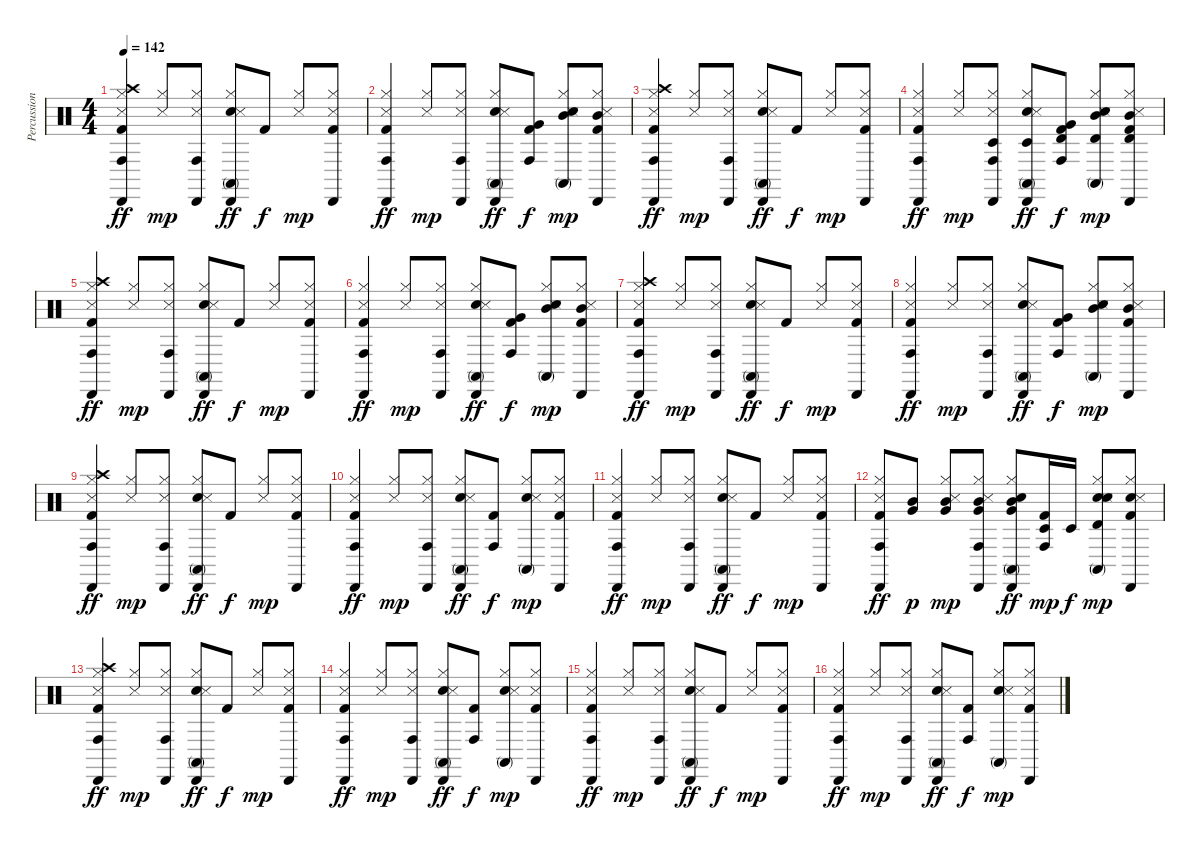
\track ("Percussion Booster" "Percussion") {instrument percussion}
\staff {score}
\articulation defaults
\ts (4 4)
\tempo 142
\clef neutral
\ks c
("Conga high (hit)" "Cabasa (hit)" "Crash high (hit)" "Hi-Hat (closed)" "Snare (side stick) 3" "Kick (hit) 2").4{dy ff} ("Hi-Hat (closed)" "Snare (side stick) 3").8{dy mp} ("Conga high (hit)" "Cabasa (hit)" "Hi-Hat (closed)" "Snare (side stick) 3").8 ("Conga high (mute)" "Cabasa (hit)" "Hi-Hat (closed)" "Hand Clap (hit)" "Snare (side stick) 3").8{dy ff} "Kick (hit) 2".8{dy f} ("Hi-Hat (closed)" "Snare (side stick) 3").8{dy mp} ("Cabasa (hit)" "Hi-Hat (closed)" "Snare (side stick) 3" "Kick (hit) 2").8 |
("Conga high (hit)" "Cabasa (hit)" "Hi-Hat (closed)" "Snare (side stick) 3" "Kick (hit) 2").4{dy ff} ("Hi-Hat (closed)" "Snare (side stick) 3").8{dy mp} ("Conga high (hit)" "Cabasa (hit)" "Hi-Hat (closed)" "Snare (side stick) 3").8 ("Conga high (mute)" "Cabasa (hit)" "Hi-Hat (closed)" "Hand Clap (hit)" "Snare (side stick) 3").8{dy ff} ("Conga high (hit)" "Very Low Tom (hit)" "Kick (hit) 2").8{dy f} ("Conga high (mute)" "Mid Tom (hit)" "Hi-Hat (closed)" "Hand Clap (hit)" "Snare (side stick) 3").8{dy mp} ("Cabasa (hit)" "Mid Tom (hit)" "Hi-Hat (closed)" "Snare (side stick) 3" "Kick (hit) 2").8 |
("Conga high (hit)" "Cabasa (hit)" "Crash high (hit)" "Hi-Hat (closed)" "Snare (side stick) 3" "Kick (hit) 2").4{dy ff} ("Hi-Hat (closed)" "Snare (side stick) 3").8{dy mp} ("Conga high (hit)" "Cabasa (hit)" "Hi-Hat (closed)" "Snare (side stick) 3").8 ("Conga high (mute)" "Cabasa (hit)" "Hi-Hat (closed)" "Hand Clap (hit)" "Snare (side stick) 3").8{dy ff} "Kick (hit) 2".8{dy f} ("Hi-Hat (closed)" "Snare (side stick) 3").8{dy mp} ("Cabasa (hit)" "Hi-Hat (closed)" "Snare (side stick) 3" "Kick (hit) 2").8 |
("Conga high (hit)" "Cabasa (hit)" "Hi-Hat (closed)" "Snare (side stick) 3" "Kick (hit) 2").4{dy ff} ("Hi-Hat (closed)" "Snare (side stick) 3").8{dy mp} ("Timbale low (hit)" "Conga high (hit)" "Cabasa (hit)" "Hi-Hat (closed)" "Snare (side stick) 3").8 ("Timbale low (hit)" "Conga high (mute)" "Cabasa (hit)" "Hi-Hat (closed)" "Hand Clap (hit)" "Snare (side stick) 3").8{dy ff} ("Timbale high (hit)" "Conga high (hit)" "Very Low Tom (hit)" "Kick (hit) 2").8{dy f} ("Timbale high (hit)" "Conga high (mute)" "Mid Tom (hit)" "Hi-Hat (closed)" "Hand Clap (hit)" "Snare (side stick) 3").8{dy mp} ("Timbale high (hit)" "Cabasa (hit)" "Mid Tom (hit)" "Hi-Hat (closed)" "Snare (side stick) 3" "Kick (hit) 2").8 |
("Conga high (hit)" "Cabasa (hit)" "Crash high (hit)" "Hi-Hat (closed)" "Snare (side stick) 3" "Kick (hit) 2").4{dy ff} ("Hi-Hat (closed)" "Snare (side stick) 3").8{dy mp} ("Conga high (hit)" "Cabasa (hit)" "Hi-Hat (closed)" "Snare (side stick) 3").8 ("Conga high (mute)" "Cabasa (hit)" "Hi-Hat (closed)" "Hand Clap (hit)" "Snare (side stick) 3").8{dy ff} "Kick (hit) 2".8{dy f} ("Hi-Hat (closed)" "Snare (side stick) 3").8{dy mp} ("Cabasa (hit)" "Hi-Hat (closed)" "Snare (side stick) 3" "Kick (hit) 2").8 |
("Conga high (hit)" "Cabasa (hit)" "Hi-Hat (closed)" "Snare (side stick) 3" "Kick (hit) 2").4{dy ff} ("Hi-Hat (closed)" "Snare (side stick) 3").8{dy mp} ("Conga high (hit)" "Cabasa (hit)" "Hi-Hat (closed)" "Snare (side stick) 3").8 ("Conga high (mute)" "Cabasa (hit)" "Hi-Hat (closed)" "Hand Clap (hit)" "Snare (side stick) 3").8{dy ff} ("Conga high (hit)" "Very Low Tom (hit)" "Kick (hit) 2").8{dy f} ("Conga high (mute)" "Mid Tom (hit)" "Hi-Hat (closed)" "Hand Clap (hit)" "Snare (side stick) 3").8{dy mp} ("Cabasa (hit)" "Mid Tom (hit)" "Hi-Hat (closed)" "Snare (side stick) 3" "Kick (hit) 2").8 |
("Conga high (hit)" "Cabasa (hit)" "Crash high (hit)" "Hi-Hat (closed)" "Snare (side stick) 3" "Kick (hit) 2").4{dy ff} ("Hi-Hat (closed)" "Snare (side stick) 3").8{dy mp} ("Conga high (hit)" "Cabasa (hit)" "Hi-Hat (closed)" "Snare (side stick) 3").8 ("Conga high (mute)" "Cabasa (hit)" "Hi-Hat (closed)" "Hand Clap (hit)" "Snare (side stick) 3").8{dy ff} "Kick (hit) 2".8{dy f} ("Hi-Hat (closed)" "Snare (side stick) 3").8{dy mp} ("Cabasa (hit)" "Hi-Hat (closed)" "Snare (side stick) 3" "Kick (hit) 2").8 |
("Conga high (hit)" "Cabasa (hit)" "Hi-Hat (closed)" "Snare (side stick) 3" "Kick (hit) 2").4{dy ff} ("Hi-Hat (closed)" "Snare (side stick) 3").8{dy mp} ("Conga high (hit)" "Cabasa (hit)" "Hi-Hat (closed)" "Snare (side stick) 3").8 ("Conga high (mute)" "Cabasa (hit)" "Hi-Hat (closed)" "Hand Clap (hit)" "Snare (side stick) 3").8{dy ff} ("Conga high (hit)" "Very Low Tom (hit)" "Kick (hit) 2").8{dy f} ("Conga high (mute)" "Mid Tom (hit)" "Hi-Hat (closed)" "Hand Clap (hit)" "Snare (side stick) 3").8{dy mp} ("Cabasa (hit)" "Mid Tom (hit)" "Hi-Hat (closed)" "Snare (side stick) 3" "Kick (hit) 2").8 |
("Conga high (hit)" "Cabasa (hit)" "Crash high (hit)" "Hi-Hat (closed)" "Snare (side stick) 3" "Kick (hit) 2").4{dy ff} ("Hi-Hat (closed)" "Snare (side stick) 3").8{dy mp} ("Conga high (hit)" "Cabasa (hit)" "Hi-Hat (closed)" "Snare (side stick) 3").8 ("Conga high (mute)" "Cabasa (hit)" "Hi-Hat (closed)" "Hand Clap (hit)" "Snare (side stick) 3").8{dy ff} "Kick (hit) 2".8{dy f} ("Hi-Hat (closed)" "Snare (side stick) 3").8{dy mp} ("Cabasa (hit)" "Hi-Hat (closed)" "Snare (side stick) 3" "Kick (hit) 2").8 |
("Conga high (hit)" "Cabasa (hit)" "Hi-Hat (closed)" "Snare (side stick) 3" "Kick (hit) 2").4{dy ff} ("Hi-Hat (closed)" "Snare (side stick) 3").8{dy mp} ("Conga high (hit)" "Cabasa (hit)" "Hi-Hat (closed)" "Snare (side stick) 3").8 ("Conga high (mute)" "Cabasa (hit)" "Hi-Hat (closed)" "Hand Clap (hit)" "Snare (side stick) 3").8{dy ff} ("Conga high (hit)" "Kick (hit) 2").8{dy f} ("Conga high (mute)" "Hi-Hat (closed)" "Hand Clap (hit)" "Snare (side stick) 3").8{dy mp} ("Cabasa (hit)" "Hi-Hat (closed)" "Snare (side stick) 3" "Kick (hit) 2").8 |
("Conga high (hit)" "Cabasa (hit)" "Hi-Hat (closed)" "Snare (side stick) 3" "Kick (hit) 2").4{dy ff} ("Hi-Hat (closed)" "Snare (side stick) 3").8{dy mp} ("Conga high (hit)" "Cabasa (hit)" "Hi-Hat (closed)" "Snare (side stick) 3").8 ("Conga high (mute)" "Cabasa (hit)" "Hi-Hat (closed)" "Hand Clap (hit)" "Snare (side stick) 3").8{dy ff} "Kick (hit) 2".8{dy f} ("Hi-Hat (closed)" "Snare (side stick) 3").8{dy mp} ("Cabasa (hit)" "Hi-Hat (closed)" "Snare (side stick) 3" "Kick (hit) 2").8 |
("Conga high (hit)" "Cabasa (hit)" "Hi-Hat (closed)" "Snare (side stick) 3" "Kick (hit) 2").8{dy ff} ("Very Low Tom (hit)" "Mid Tom (hit)").8{dy p} ("Very Low Tom (hit)" "Mid Tom (hit)" "Hi-Hat (closed)" "Snare (side stick) 3").8{dy mp} ("Conga high (hit)" "Cabasa (hit)" "Very Low Tom (hit)" "Mid Tom (hit)" "Hi-Hat (closed)" "Snare (side stick) 3").8 ("Conga high (mute)" "Cabasa (hit)" "Very Low Tom (hit)" "Mid Tom (hit)" "Hi-Hat (closed)" "Hand Clap (hit)").8{dy ff} ("Timbale low (hit)" "Conga high (hit)" "Kick (hit) 2").16{dy mp} "Timbale low (hit)".16{dy f} ("Timbale high (hit)" "Conga high (mute)" "Hi-Hat (closed)" "Hand Clap (hit)" "Snare (hit) 2" "Snare (side stick) 3").8{dy mp} ("Cabasa (hit)" "Hi-Hat (closed)" "Snare (hit) 2" "Snare (side stick) 3" "Kick (hit) 2").8 |
("Conga high (hit)" "Cabasa (hit)" "Crash high (hit)" "Hi-Hat (closed)" "Snare (side stick) 3" "Kick (hit) 2").4{dy ff} ("Hi-Hat (closed)" "Snare (side stick) 3").8{dy mp} ("Conga high (hit)" "Cabasa (hit)" "Hi-Hat (closed)" "Snare (side stick) 3").8 ("Conga high (mute)" "Cabasa (hit)" "Hi-Hat (closed)" "Hand Clap (hit)" "Snare (side stick) 3").8{dy ff} "Kick (hit) 2".8{dy f} ("Hi-Hat (closed)" "Snare (side stick) 3").8{dy mp} ("Cabasa (hit)" "Hi-Hat (closed)" "Snare (side stick) 3" "Kick (hit) 2").8 |
("Conga high (hit)" "Cabasa (hit)" "Hi-Hat (closed)" "Snare (side stick) 3" "Kick (hit) 2").4{dy ff} ("Hi-Hat (closed)" "Snare (side stick) 3").8{dy mp} ("Conga high (hit)" "Cabasa (hit)" "Hi-Hat (closed)" "Snare (side stick) 3").8 ("Conga high (mute)" "Cabasa (hit)" "Hi-Hat (closed)" "Hand Clap (hit)" "Snare (side stick) 3").8{dy ff} ("Conga high (hit)" "Kick (hit) 2").8{dy f} ("Conga high (mute)" "Hi-Hat (closed)" "Hand Clap (hit)" "Snare (side stick) 3").8{dy mp} ("Cabasa (hit)" "Hi-Hat (closed)" "Snare (side stick) 3" "Kick (hit) 2").8 |
("Conga high (hit)" "Cabasa (hit)" "Hi-Hat (closed)" "Snare (side stick) 3" "Kick (hit) 2").4{dy ff} ("Hi-Hat (closed)" "Snare (side stick) 3").8{dy mp} ("Conga high (hit)" "Cabasa (hit)" "Hi-Hat (closed)" "Snare (side stick) 3").8 ("Conga high (mute)" "Cabasa (hit)" "Hi-Hat (closed)" "Hand Clap (hit)" "Snare (side stick) 3").8{dy ff} "Kick (hit) 2".8{dy f} ("Hi-Hat (closed)" "Snare (side stick) 3").8{dy mp} ("Cabasa (hit)" "Hi-Hat (closed)" "Snare (side stick) 3" "Kick (hit) 2").8 |
("Conga high (hit)" "Cabasa (hit)" "Hi-Hat (closed)" "Snare (side stick) 3" "Kick (hit) 2").4{dy ff} ("Hi-Hat (closed)" "Snare (side stick) 3").8{dy mp} ("Conga high (hit)" "Cabasa (hit)" "Hi-Hat (closed)" "Snare (side stick) 3").8 ("Conga high (mute)" "Cabasa (hit)" "Hi-Hat (closed)" "Hand Clap (hit)" "Snare (side stick) 3").8{dy ff} ("Conga high (hit)" "Kick (hit) 2").8{dy f} ("Conga high (mute)" "Hi-Hat (closed)" "Hand Clap (hit)" "Snare (side stick) 3").8{dy mp} ("Cabasa (hit)" "Hi-Hat (closed)" "Snare (side stick) 3" "Kick (hit) 2").8
